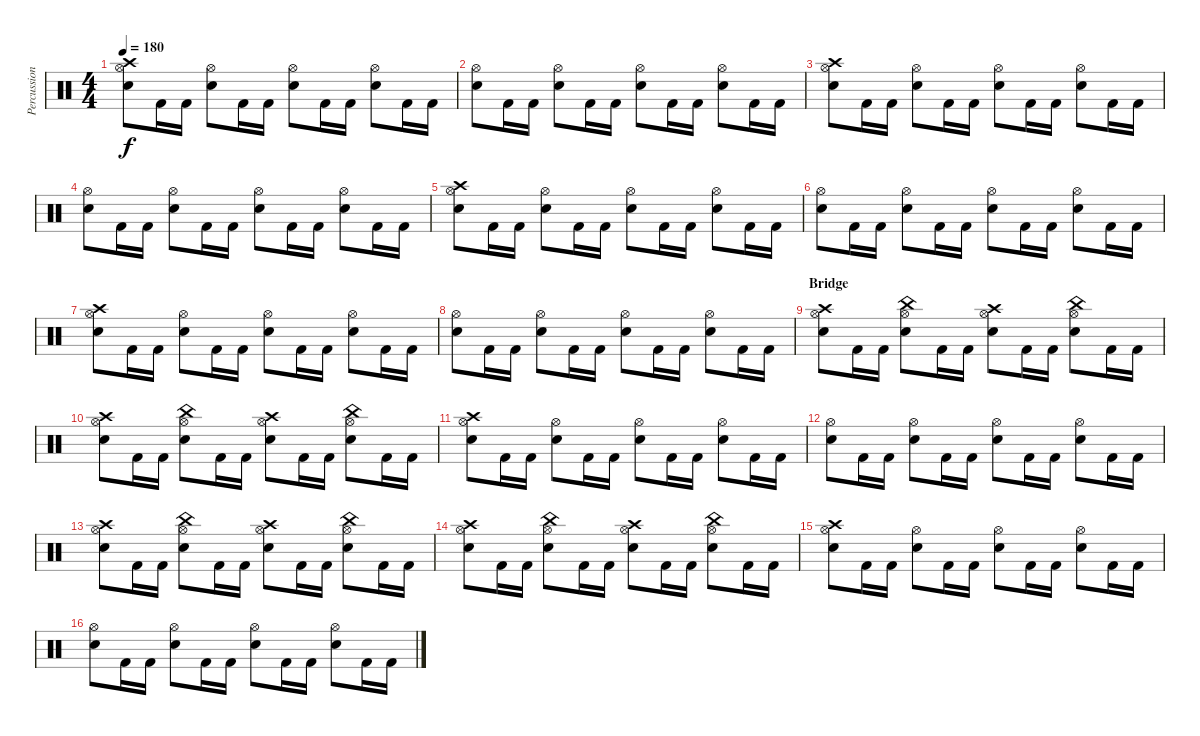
\track ("Percussions" "Percussion") {instrument percussion}
\staff {score}
\articulation defaults
\ts (4 4)
\tempo 180
\clef neutral
\ks c
("Crash high (hit)" "Hi-Hat (open)" "Electric Snare (hit)").8{dy f} "Kick (hit) 2".16 "Kick (hit) 2".16 ("Hi-Hat (open)" "Electric Snare (hit)").8 "Kick (hit) 2".16 "Kick (hit) 2".16 ("Hi-Hat (open)" "Electric Snare (hit)").8 "Kick (hit) 2".16 "Kick (hit) 2".16 ("Hi-Hat (open)" "Electric Snare (hit)").8 "Kick (hit) 2".16 "Kick (hit) 2".16 |
("Hi-Hat (open)" "Electric Snare (hit)").8 "Kick (hit) 2".16 "Kick (hit) 2".16 ("Hi-Hat (open)" "Electric Snare (hit)").8 "Kick (hit) 2".16 "Kick (hit) 2".16 ("Hi-Hat (open)" "Electric Snare (hit)").8 "Kick (hit) 2".16 "Kick (hit) 2".16 ("Hi-Hat (open)" "Electric Snare (hit)").8 "Kick (hit) 2".16 "Kick (hit) 2".16 |
("Crash high (hit)" "Hi-Hat (open)" "Electric Snare (hit)").8 "Kick (hit) 2".16 "Kick (hit) 2".16 ("Hi-Hat (open)" "Electric Snare (hit)").8 "Kick (hit) 2".16 "Kick (hit) 2".16 ("Hi-Hat (open)" "Electric Snare (hit)").8 "Kick (hit) 2".16 "Kick (hit) 2".16 ("Hi-Hat (open)" "Electric Snare (hit)").8 "Kick (hit) 2".16 "Kick (hit) 2".16 |
("Hi-Hat (open)" "Electric Snare (hit)").8 "Kick (hit) 2".16 "Kick (hit) 2".16 ("Hi-Hat (open)" "Electric Snare (hit)").8 "Kick (hit) 2".16 "Kick (hit) 2".16 ("Hi-Hat (open)" "Electric Snare (hit)").8 "Kick (hit) 2".16 "Kick (hit) 2".16 ("Hi-Hat (open)" "Electric Snare (hit)").8 "Kick (hit) 2".16 "Kick (hit) 2".16 |
("Crash high (hit)" "Hi-Hat (open)" "Electric Snare (hit)").8 "Kick (hit) 2".16 "Kick (hit) 2".16 ("Hi-Hat (open)" "Electric Snare (hit)").8 "Kick (hit) 2".16 "Kick (hit) 2".16 ("Hi-Hat (open)" "Electric Snare (hit)").8 "Kick (hit) 2".16 "Kick (hit) 2".16 ("Hi-Hat (open)" "Electric Snare (hit)").8 "Kick (hit) 2".16 "Kick (hit) 2".16 |
("Hi-Hat (open)" "Electric Snare (hit)").8 "Kick (hit) 2".16 "Kick (hit) 2".16 ("Hi-Hat (open)" "Electric Snare (hit)").8 "Kick (hit) 2".16 "Kick (hit) 2".16 ("Hi-Hat (open)" "Electric Snare (hit)").8 "Kick (hit) 2".16 "Kick (hit) 2".16 ("Hi-Hat (open)" "Electric Snare (hit)").8 "Kick (hit) 2".16 "Kick (hit) 2".16 |
("Crash high (hit)" "Hi-Hat (open)" "Electric Snare (hit)").8 "Kick (hit) 2".16 "Kick (hit) 2".16 ("Hi-Hat (open)" "Electric Snare (hit)").8 "Kick (hit) 2".16 "Kick (hit) 2".16 ("Hi-Hat (open)" "Electric Snare (hit)").8 "Kick (hit) 2".16 "Kick (hit) 2".16 ("Hi-Hat (open)" "Electric Snare (hit)").8 "Kick (hit) 2".16 "Kick (hit) 2".16 |
("Hi-Hat (open)" "Electric Snare (hit)").8 "Kick (hit) 2".16 "Kick (hit) 2".16 ("Hi-Hat (open)" "Electric Snare (hit)").8 "Kick (hit) 2".16 "Kick (hit) 2".16 ("Hi-Hat (open)" "Electric Snare (hit)").8 "Kick (hit) 2".16 "Kick (hit) 2".16 ("Hi-Hat (open)" "Electric Snare (hit)").8 "Kick (hit) 2".16 "Kick (hit) 2".16 |
\section ("" "Bridge")
("Crash high (hit)" "Hi-Hat (open)" "Electric Snare (hit)").8 "Kick (hit) 2".16 "Kick (hit) 2".16 ("China (hit)" "Hi-Hat (open)" "Electric Snare (hit)").8 "Kick (hit) 2".16 "Kick (hit) 2".16 ("Crash high (hit)" "Hi-Hat (open)" "Electric Snare (hit)").8 "Kick (hit) 2".16 "Kick (hit) 2".16 ("China (hit)" "Hi-Hat (open)" "Electric Snare (hit)").8 "Kick (hit) 2".16 "Kick (hit) 2".16 |
("Crash high (hit)" "Hi-Hat (open)" "Electric Snare (hit)").8 "Kick (hit) 2".16 "Kick (hit) 2".16 ("China (hit)" "Hi-Hat (open)" "Electric Snare (hit)").8 "Kick (hit) 2".16 "Kick (hit) 2".16 ("Crash high (hit)" "Hi-Hat (open)" "Electric Snare (hit)").8 "Kick (hit) 2".16 "Kick (hit) 2".16 ("China (hit)" "Hi-Hat (open)" "Electric Snare (hit)").8 "Kick (hit) 2".16 "Kick (hit) 2".16 |
("Crash high (hit)" "Hi-Hat (open)" "Electric Snare (hit)").8 "Kick (hit) 2".16 "Kick (hit) 2".16 ("Hi-Hat (open)" "Electric Snare (hit)").8 "Kick (hit) 2".16 "Kick (hit) 2".16 ("Hi-Hat (open)" "Electric Snare (hit)").8 "Kick (hit) 2".16 "Kick (hit) 2".16 ("Hi-Hat (open)" "Electric Snare (hit)").8 "Kick (hit) 2".16 "Kick (hit) 2".16 |
("Hi-Hat (open)" "Electric Snare (hit)").8 "Kick (hit) 2".16 "Kick (hit) 2".16 ("Hi-Hat (open)" "Electric Snare (hit)").8 "Kick (hit) 2".16 "Kick (hit) 2".16 ("Hi-Hat (open)" "Electric Snare (hit)").8 "Kick (hit) 2".16 "Kick (hit) 2".16 ("Hi-Hat (open)" "Electric Snare (hit)").8 "Kick (hit) 2".16 "Kick (hit) 2".16 |
("Crash high (hit)" "Hi-Hat (open)" "Electric Snare (hit)").8 "Kick (hit) 2".16 "Kick (hit) 2".16 ("China (hit)" "Hi-Hat (open)" "Electric Snare (hit)").8 "Kick (hit) 2".16 "Kick (hit) 2".16 ("Crash high (hit)" "Hi-Hat (open)" "Electric Snare (hit)").8 "Kick (hit) 2".16 "Kick (hit) 2".16 ("China (hit)" "Hi-Hat (open)" "Electric Snare (hit)").8 "Kick (hit) 2".16 "Kick (hit) 2".16 |
("Crash high (hit)" "Hi-Hat (open)" "Electric Snare (hit)").8 "Kick (hit) 2".16 "Kick (hit) 2".16 ("China (hit)" "Hi-Hat (open)" "Electric Snare (hit)").8 "Kick (hit) 2".16 "Kick (hit) 2".16 ("Crash high (hit)" "Hi-Hat (open)" "Electric Snare (hit)").8 "Kick (hit) 2".16 "Kick (hit) 2".16 ("China (hit)" "Hi-Hat (open)" "Electric Snare (hit)").8 "Kick (hit) 2".16 "Kick (hit) 2".16 |
("Crash high (hit)" "Hi-Hat (open)" "Electric Snare (hit)").8 "Kick (hit) 2".16 "Kick (hit) 2".16 ("Hi-Hat (open)" "Electric Snare (hit)").8 "Kick (hit) 2".16 "Kick (hit) 2".16 ("Hi-Hat (open)" "Electric Snare (hit)").8 "Kick (hit) 2".16 "Kick (hit) 2".16 ("Hi-Hat (open)" "Electric Snare (hit)").8 "Kick (hit) 2".16 "Kick (hit) 2".16 |
("Hi-Hat (open)" "Electric Snare (hit)").8 "Kick (hit) 2".16 "Kick (hit) 2".16 ("Hi-Hat (open)" "Electric Snare (hit)").8 "Kick (hit) 2".16 "Kick (hit) 2".16 ("Hi-Hat (open)" "Electric Snare (hit)").8 "Kick (hit) 2".16 "Kick (hit) 2".16 ("Hi-Hat (open)" "Electric Snare (hit)").8 "Kick (hit) 2".16 "Kick (hit) 2".16
